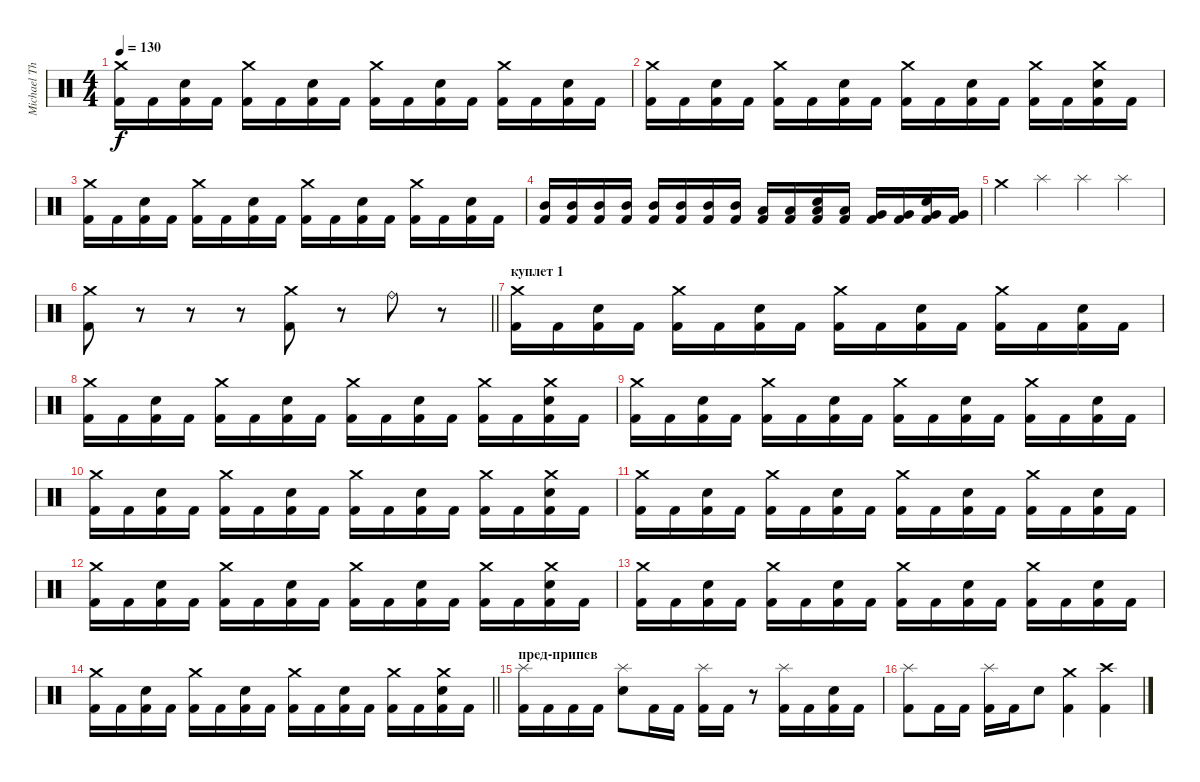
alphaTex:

\track ("Michael Thomas" "Michael Th") {instrument percussion}
\staff {score}
\articulation defaults
\ts (4 4)
\tempo 130
\clef neutral
\ks c
("Crash medium (hit)" "Kick (hit) 2").16{dy f} "Kick (hit) 2".16 ("Electric Snare (hit)" "Kick (hit) 2").16 "Kick (hit) 2".16 ("Crash medium (hit)" "Kick (hit) 2").16 "Kick (hit) 2".16 ("Electric Snare (hit)" "Kick (hit) 2").16 "Kick (hit) 2".16 ("Crash medium (hit)" "Kick (hit) 2").16 "Kick (hit) 2".16 ("Electric Snare (hit)" "Kick (hit) 2").16 "Kick (hit) 2".16 ("Crash medium (hit)" "Kick (hit) 2").16 "Kick (hit) 2".16 ("Electric Snare (hit)" "Kick (hit) 2").16 "Kick (hit) 2".16 |
("Crash medium (hit)" "Kick (hit) 2").16 "Kick (hit) 2".16 ("Electric Snare (hit)" "Kick (hit) 2").16 "Kick (hit) 2".16 ("Crash medium (hit)" "Kick (hit) 2").16 "Kick (hit) 2".16 ("Electric Snare (hit)" "Kick (hit) 2").16 "Kick (hit) 2".16 ("Crash medium (hit)" "Kick (hit) 2").16 "Kick (hit) 2".16 ("Electric Snare (hit)" "Kick (hit) 2").16 "Kick (hit) 2".16 ("Crash medium (hit)" "Kick (hit) 2").16 "Kick (hit) 2".16 ("Crash medium (hit)" "Electric Snare (hit)" "Kick (hit) 2").16 "Kick (hit) 2".16 |
("Crash medium (hit)" "Kick (hit) 2").16 "Kick (hit) 2".16 ("Electric Snare (hit)" "Kick (hit) 2").16 "Kick (hit) 2".16 ("Crash medium (hit)" "Kick (hit) 2").16 "Kick (hit) 2".16 ("Electric Snare (hit)" "Kick (hit) 2").16 "Kick (hit) 2".16 ("Crash medium (hit)" "Kick (hit) 2").16 "Kick (hit) 2".16 ("Electric Snare (hit)" "Kick (hit) 2").16 "Kick (hit) 2".16 ("Crash medium (hit)" "Kick (hit) 2").16 "Kick (hit) 2".16 ("Electric Snare (hit)" "Kick (hit) 2").16 "Kick (hit) 2".16 |
("Mid Tom (hit)" "Kick (hit) 2").16 ("Mid Tom (hit)" "Kick (hit) 2").16 ("Mid Tom (hit)" "Kick (hit) 2").16 ("Mid Tom (hit)" "Kick (hit) 2").16 ("Mid Tom (hit)" "Kick (hit) 2").16 ("Mid Tom (hit)" "Kick (hit) 2").16 ("Mid Tom (hit)" "Kick (hit) 2").16 ("Mid Tom (hit)" "Kick (hit) 2").16 ("Low Tom (hit)" "Kick (hit) 2").16 ("Low Tom (hit)" "Kick (hit) 2").16 ("Electric Snare (hit)" "Low Tom (hit)" "Kick (hit) 2").16 ("Low Tom (hit)" "Kick (hit) 2").16 ("Very Low Tom (hit)" "Kick (hit) 2").16 ("Very Low Tom (hit)" "Kick (hit) 2").16 ("Electric Snare (hit)" "Very Low Tom (hit)" "Kick (hit) 2").16 ("Very Low Tom (hit)" "Kick (hit) 2").16 |
"Crash medium (hit)".4 "Splash (hit)".4 "Splash (hit)".4 "Splash (hit)".4 |
\barLineRight lightlight
("Crash medium (hit)" "Kick (hit) 2").8 r.8 r.8 r.8 ("Crash medium (hit)" "Kick (hit) 2").8 r.8 "Ride (bell)".8 r.8 |
\section ("" "куплет 1")
("Crash medium (hit)" "Kick (hit) 2").16 "Kick (hit) 2".16 ("Electric Snare (hit)" "Kick (hit) 2").16 "Kick (hit) 2".16 ("Crash medium (hit)" "Kick (hit) 2").16 "Kick (hit) 2".16 ("Electric Snare (hit)" "Kick (hit) 2").16 "Kick (hit) 2".16 ("Crash medium (hit)" "Kick (hit) 2").16 "Kick (hit) 2".16 ("Electric Snare (hit)" "Kick (hit) 2").16 "Kick (hit) 2".16 ("Crash medium (hit)" "Kick (hit) 2").16 "Kick (hit) 2".16 ("Electric Snare (hit)" "Kick (hit) 2").16 "Kick (hit) 2".16 |
("Crash medium (hit)" "Kick (hit) 2").16 "Kick (hit) 2".16 ("Electric Snare (hit)" "Kick (hit) 2").16 "Kick (hit) 2".16 ("Crash medium (hit)" "Kick (hit) 2").16 "Kick (hit) 2".16 ("Electric Snare (hit)" "Kick (hit) 2").16 "Kick (hit) 2".16 ("Crash medium (hit)" "Kick (hit) 2").16 "Kick (hit) 2".16 ("Electric Snare (hit)" "Kick (hit) 2").16 "Kick (hit) 2".16 ("Crash medium (hit)" "Kick (hit) 2").16 "Kick (hit) 2".16 ("Crash medium (hit)" "Electric Snare (hit)" "Kick (hit) 2").16 "Kick (hit) 2".16 |
("Crash medium (hit)" "Kick (hit) 2").16 "Kick (hit) 2".16 ("Electric Snare (hit)" "Kick (hit) 2").16 "Kick (hit) 2".16 ("Crash medium (hit)" "Kick (hit) 2").16 "Kick (hit) 2".16 ("Electric Snare (hit)" "Kick (hit) 2").16 "Kick (hit) 2".16 ("Crash medium (hit)" "Kick (hit) 2").16 "Kick (hit) 2".16 ("Electric Snare (hit)" "Kick (hit) 2").16 "Kick (hit) 2".16 ("Crash medium (hit)" "Kick (hit) 2").16 "Kick (hit) 2".16 ("Electric Snare (hit)" "Kick (hit) 2").16 "Kick (hit) 2".16 |
("Crash medium (hit)" "Kick (hit) 2").16 "Kick (hit) 2".16 ("Electric Snare (hit)" "Kick (hit) 2").16 "Kick (hit) 2".16 ("Crash medium (hit)" "Kick (hit) 2").16 "Kick (hit) 2".16 ("Electric Snare (hit)" "Kick (hit) 2").16 "Kick (hit) 2".16 ("Crash medium (hit)" "Kick (hit) 2").16 "Kick (hit) 2".16 ("Electric Snare (hit)" "Kick (hit) 2").16 "Kick (hit) 2".16 ("Crash medium (hit)" "Kick (hit) 2").16 "Kick (hit) 2".16 ("Crash medium (hit)" "Electric Snare (hit)" "Kick (hit) 2").16 "Kick (hit) 2".16 |
("Crash medium (hit)" "Kick (hit) 2").16 "Kick (hit) 2".16 ("Electric Snare (hit)" "Kick (hit) 2").16 "Kick (hit) 2".16 ("Crash medium (hit)" "Kick (hit) 2").16 "Kick (hit) 2".16 ("Electric Snare (hit)" "Kick (hit) 2").16 "Kick (hit) 2".16 ("Crash medium (hit)" "Kick (hit) 2").16 "Kick (hit) 2".16 ("Electric Snare (hit)" "Kick (hit) 2").16 "Kick (hit) 2".16 ("Crash medium (hit)" "Kick (hit) 2").16 "Kick (hit) 2".16 ("Electric Snare (hit)" "Kick (hit) 2").16 "Kick (hit) 2".16 |
("Crash medium (hit)" "Kick (hit) 2").16 "Kick (hit) 2".16 ("Electric Snare (hit)" "Kick (hit) 2").16 "Kick (hit) 2".16 ("Crash medium (hit)" "Kick (hit) 2").16 "Kick (hit) 2".16 ("Electric Snare (hit)" "Kick (hit) 2").16 "Kick (hit) 2".16 ("Crash medium (hit)" "Kick (hit) 2").16 "Kick (hit) 2".16 ("Electric Snare (hit)" "Kick (hit) 2").16 "Kick (hit) 2".16 ("Crash medium (hit)" "Kick (hit) 2").16 "Kick (hit) 2".16 ("Crash medium (hit)" "Electric Snare (hit)" "Kick (hit) 2").16 "Kick (hit) 2".16 |
("Crash medium (hit)" "Kick (hit) 2").16 "Kick (hit) 2".16 ("Electric Snare (hit)" "Kick (hit) 2").16 "Kick (hit) 2".16 ("Crash medium (hit)" "Kick (hit) 2").16 "Kick (hit) 2".16 ("Electric Snare (hit)" "Kick (hit) 2").16 "Kick (hit) 2".16 ("Crash medium (hit)" "Kick (hit) 2").16 "Kick (hit) 2".16 ("Electric Snare (hit)" "Kick (hit) 2").16 "Kick (hit) 2".16 ("Crash medium (hit)" "Kick (hit) 2").16 "Kick (hit) 2".16 ("Electric Snare (hit)" "Kick (hit) 2").16 "Kick (hit) 2".16 |
\barLineRight lightlight
("Crash medium (hit)" "Kick (hit) 2").16 "Kick (hit) 2".16 ("Electric Snare (hit)" "Kick (hit) 2").16 "Kick (hit) 2".16 ("Crash medium (hit)" "Kick (hit) 2").16 "Kick (hit) 2".16 ("Electric Snare (hit)" "Kick (hit) 2").16 "Kick (hit) 2".16 ("Crash medium (hit)" "Kick (hit) 2").16 "Kick (hit) 2".16 ("Electric Snare (hit)" "Kick (hit) 2").16 "Kick (hit) 2".16 ("Crash medium (hit)" "Kick (hit) 2").16 "Kick (hit) 2".16 ("Crash medium (hit)" "Electric Snare (hit)" "Kick (hit) 2").16 "Kick (hit) 2".16 |
\section ("" "пред-припев")
("Splash (hit)" "Kick (hit) 2").16 "Kick (hit) 2".16 "Kick (hit) 2".16 "Kick (hit) 2".16 ("Splash (hit)" "Electric Snare (hit)").8 "Kick (hit) 2".16 "Kick (hit) 2".16 ("Splash (hit)" "Kick (hit) 2").16 "Kick (hit) 2".16 r.8 ("Splash (hit)" "Kick (hit) 2").16 "Kick (hit) 2".16 ("Electric Snare (hit)" "Kick (hit) 2").16 "Kick (hit) 2".16 |
("Splash (hit)" "Kick (hit) 2").8 "Kick (hit) 2".16 "Kick (hit) 2".16 ("Splash (hit)" "Kick (hit) 2").16 "Kick (hit) 2".16 "Electric Snare (hit)".8 ("Crash medium (hit)" "Kick (hit) 2").4 ("Crash high (hit)" "Kick (hit) 2").4
